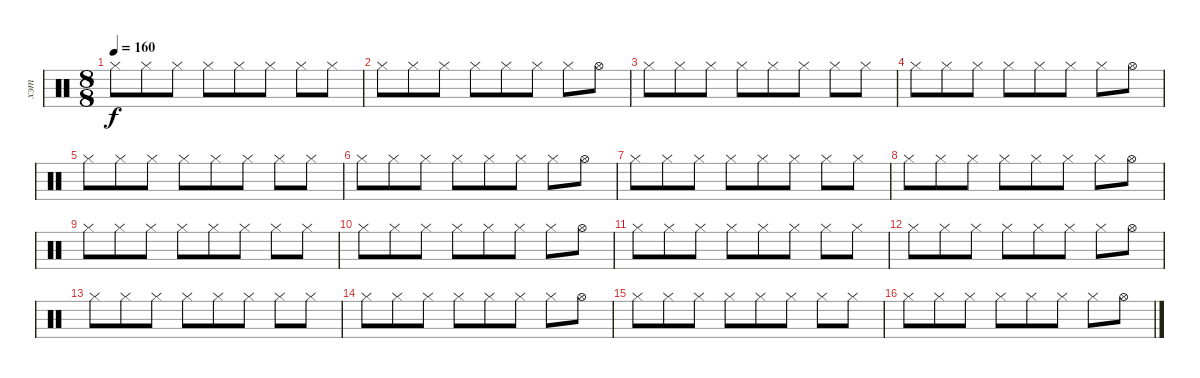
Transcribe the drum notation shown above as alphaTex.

\track ("хэт" "хэт") {instrument percussion}
\staff {score}
\articulation defaults
\ts (8 8)
\tempo 160
\clef neutral
\ks c "Hi-Hat (closed)".8{dy f} "Hi-Hat (closed)".8 "Hi-Hat (closed)".8 "Hi-Hat (closed)".8 "Hi-Hat (closed)".8 "Hi-Hat (closed)".8 "Hi-Hat (closed)".8 "Hi-Hat (closed)".8
|
"Hi-Hat (closed)".8 "Hi-Hat (closed)".8 "Hi-Hat (closed)".8 "Hi-Hat (closed)".8 "Hi-Hat (closed)".8 "Hi-Hat (closed)".8 "Hi-Hat (closed)".8 "Hi-Hat (open)".8 |
"Hi-Hat (closed)".8 "Hi-Hat (closed)".8 "Hi-Hat (closed)".8 "Hi-Hat (closed)".8 "Hi-Hat (closed)".8 "Hi-Hat (closed)".8 "Hi-Hat (closed)".8 "Hi-Hat (closed)".8 |
"Hi-Hat (closed)".8 "Hi-Hat (closed)".8 "Hi-Hat (closed)".8 "Hi-Hat (closed)".8 "Hi-Hat (closed)".8 "Hi-Hat (closed)".8 "Hi-Hat (closed)".8 "Hi-Hat (open)".8 |
"Hi-Hat (closed)".8 "Hi-Hat (closed)".8 "Hi-Hat (closed)".8 "Hi-Hat (closed)".8 "Hi-Hat (closed)".8 "Hi-Hat (closed)".8 "Hi-Hat (closed)".8 "Hi-Hat (closed)".8 |
"Hi-Hat (closed)".8 "Hi-Hat (closed)".8 "Hi-Hat (closed)".8 "Hi-Hat (closed)".8 "Hi-Hat (closed)".8 "Hi-Hat (closed)".8 "Hi-Hat (closed)".8 "Hi-Hat (open)".8 |
"Hi-Hat (closed)".8 "Hi-Hat (closed)".8 "Hi-Hat (closed)".8 "Hi-Hat (closed)".8 "Hi-Hat (closed)".8 "Hi-Hat (closed)".8 "Hi-Hat (closed)".8 "Hi-Hat (closed)".8 |
"Hi-Hat (closed)".8 "Hi-Hat (closed)".8 "Hi-Hat (closed)".8 "Hi-Hat (closed)".8 "Hi-Hat (closed)".8 "Hi-Hat (closed)".8 "Hi-Hat (closed)".8 "Hi-Hat (open)".8 |
"Hi-Hat (closed)".8 "Hi-Hat (closed)".8 "Hi-Hat (closed)".8 "Hi-Hat (closed)".8 "Hi-Hat (closed)".8 "Hi-Hat (closed)".8 "Hi-Hat (closed)".8 "Hi-Hat (closed)".8 |
"Hi-Hat (closed)".8 "Hi-Hat (closed)".8 "Hi-Hat (closed)".8 "Hi-Hat (closed)".8 "Hi-Hat (closed)".8 "Hi-Hat (closed)".8 "Hi-Hat (closed)".8 "Hi-Hat (open)".8 |
"Hi-Hat (closed)".8 "Hi-Hat (closed)".8 "Hi-Hat (closed)".8 "Hi-Hat (closed)".8 "Hi-Hat (closed)".8 "Hi-Hat (closed)".8 "Hi-Hat (closed)".8 "Hi-Hat (closed)".8 |
"Hi-Hat (closed)".8 "Hi-Hat (closed)".8 "Hi-Hat (closed)".8 "Hi-Hat (closed)".8 "Hi-Hat (closed)".8 "Hi-Hat (closed)".8 "Hi-Hat (closed)".8 "Hi-Hat (open)".8 |
"Hi-Hat (closed)".8 "Hi-Hat (closed)".8 "Hi-Hat (closed)".8 "Hi-Hat (closed)".8 "Hi-Hat (closed)".8 "Hi-Hat (closed)".8 "Hi-Hat (closed)".8 "Hi-Hat (closed)".8 |
"Hi-Hat (closed)".8 "Hi-Hat (closed)".8 "Hi-Hat (closed)".8 "Hi-Hat (closed)".8 "Hi-Hat (closed)".8 "Hi-Hat (closed)".8 "Hi-Hat (closed)".8 "Hi-Hat (open)".8 |
"Hi-Hat (closed)".8 "Hi-Hat (closed)".8 "Hi-Hat (closed)".8 "Hi-Hat (closed)".8 "Hi-Hat (closed)".8 "Hi-Hat (closed)".8 "Hi-Hat (closed)".8 "Hi-Hat (closed)".8 |
"Hi-Hat (closed)".8 "Hi-Hat (closed)".8 "Hi-Hat (closed)".8 "Hi-Hat (closed)".8{volume 16} "Hi-Hat (closed)".8 "Hi-Hat (closed)".8 "Hi-Hat (closed)".8 "Hi-Hat (open)".8
